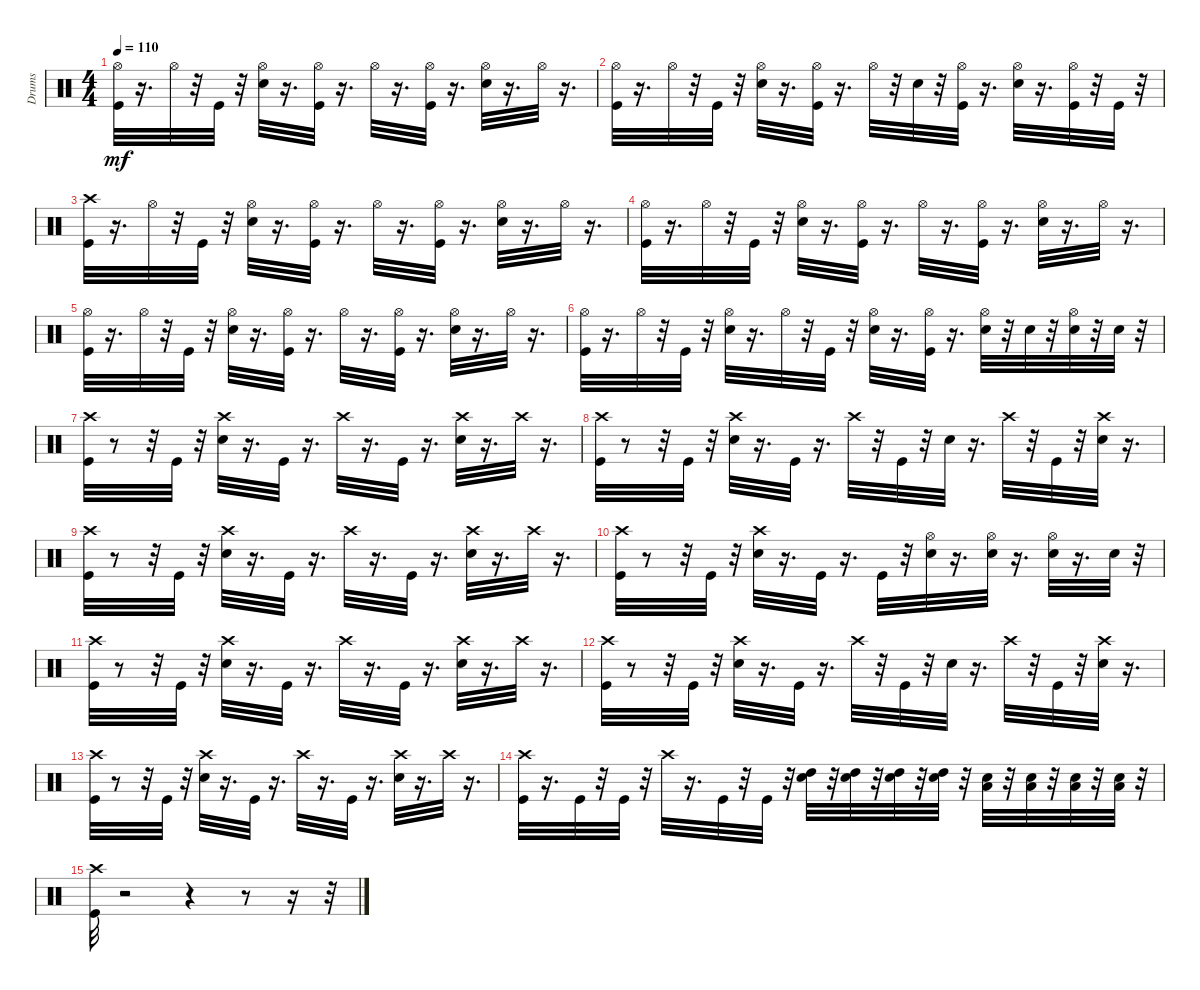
\track ("Drums               " "Drums     ") {instrument percussion}
\staff {score}
\articulation defaults
\ts (4 4)
\tempo 110
\clef neutral
\ks c
("Hi-Hat (open)" "Kick (hit)").32{dy mf} r.16{d} "Hi-Hat (open)".32 r.32 "Kick (hit)".32 r.32 ("Hi-Hat (open)" "Snare (hit) 2").32 r.16{d} ("Hi-Hat (open)" "Kick (hit)").32 r.16{d} "Hi-Hat (open)".32 r.16{d} ("Hi-Hat (open)" "Kick (hit)").32 r.16{d} ("Hi-Hat (open)" "Snare (hit) 2").32 r.16{d} "Hi-Hat (open)".32 r.16{d} |
("Hi-Hat (open)" "Kick (hit)").32 r.16{d} "Hi-Hat (open)".32 r.32 "Kick (hit)".32 r.32 ("Hi-Hat (open)" "Snare (hit) 2").32 r.16{d} ("Hi-Hat (open)" "Kick (hit)").32 r.16{d} "Hi-Hat (open)".32 r.32 "Snare (hit) 2".32 r.32 ("Hi-Hat (open)" "Kick (hit)").32 r.16{d} ("Hi-Hat (open)" "Snare (hit) 2").32 r.16{d} ("Hi-Hat (open)" "Kick (hit)").32 r.32 "Kick (hit)".32 r.32 |
("Kick (hit)" "Crash high (hit)").32 r.16{d} "Hi-Hat (open)".32 r.32 "Kick (hit)".32 r.32 ("Hi-Hat (open)" "Snare (hit) 2").32 r.16{d} ("Hi-Hat (open)" "Kick (hit)").32 r.16{d} "Hi-Hat (open)".32 r.16{d} ("Hi-Hat (open)" "Kick (hit)").32 r.16{d} ("Hi-Hat (open)" "Snare (hit) 2").32 r.16{d} "Hi-Hat (open)".32 r.16{d} |
("Hi-Hat (open)" "Kick (hit)").32 r.16{d} "Hi-Hat (open)".32 r.32 "Kick (hit)".32 r.32 ("Hi-Hat (open)" "Snare (hit) 2").32 r.16{d} ("Hi-Hat (open)" "Kick (hit)").32 r.16{d} "Hi-Hat (open)".32 r.16{d} ("Hi-Hat (open)" "Kick (hit)").32 r.16{d} ("Hi-Hat (open)" "Snare (hit) 2").32 r.16{d} "Hi-Hat (open)".32 r.16{d} |
("Hi-Hat (open)" "Kick (hit)").32 r.16{d} "Hi-Hat (open)".32 r.32 "Kick (hit)".32 r.32 ("Hi-Hat (open)" "Snare (hit) 2").32 r.16{d} ("Hi-Hat (open)" "Kick (hit)").32 r.16{d} "Hi-Hat (open)".32 r.16{d} ("Hi-Hat (open)" "Kick (hit)").32 r.16{d} ("Hi-Hat (open)" "Snare (hit) 2").32 r.16{d} "Hi-Hat (open)".32 r.16{d} |
("Hi-Hat (open)" "Kick (hit)").32 r.16{d} "Hi-Hat (open)".32 r.32 "Kick (hit)".32 r.32 ("Hi-Hat (open)" "Snare (hit) 2").32 r.16{d} "Hi-Hat (open)".32 r.32 "Kick (hit)".32 r.32 ("Hi-Hat (open)" "Snare (hit) 2").32 r.16{d} ("Hi-Hat (open)" "Kick (hit)").32 r.16{d} ("Hi-Hat (open)" "Snare (hit) 2").32 r.32 "Snare (hit) 2".32 r.32 ("Hi-Hat (open)" "Snare (hit) 2").32 r.32 "Snare (hit) 2".32 r.32 |
("Crash high (hit)" "Kick (hit)").32 r.8 r.32 "Kick (hit)".32 r.32 ("Crash high (hit)" "Snare (hit) 2").32 r.16{d} "Kick (hit)".32 r.16{d} "Crash high (hit)".32 r.16{d} "Kick (hit)".32 r.16{d} ("Crash high (hit)" "Snare (hit) 2").32 r.16{d} "Crash high (hit)".32 r.16{d} |
("Crash high (hit)" "Kick (hit)").32 r.8 r.32 "Kick (hit)".32 r.32 ("Crash high (hit)" "Snare (hit) 2").32 r.16{d} "Kick (hit)".32 r.16{d} "Crash high (hit)".32 r.32 "Kick (hit)".32 r.32 "Snare (hit) 2".32 r.16{d} "Crash high (hit)".32 r.32 "Kick (hit)".32 r.32 ("Crash high (hit)" "Snare (hit) 2").32 r.16{d} |
("Crash high (hit)" "Kick (hit)").32 r.8 r.32 "Kick (hit)".32 r.32 ("Crash high (hit)" "Snare (hit) 2").32 r.16{d} "Kick (hit)".32 r.16{d} "Crash high (hit)".32 r.16{d} "Kick (hit)".32 r.16{d} ("Crash high (hit)" "Snare (hit) 2").32 r.16{d} "Crash high (hit)".32 r.16{d} |
("Crash high (hit)" "Kick (hit)").32 r.8 r.32 "Kick (hit)".32 r.32 ("Crash high (hit)" "Snare (hit) 2").32 r.16{d} "Kick (hit)".32 r.16{d} "Kick (hit)".32 r.32 ("Snare (hit) 2" "Hi-Hat (open)").32 r.16{d} ("Snare (hit) 2" "Hi-Hat (open)").32 r.16{d} ("Hi-Hat (open)" "Snare (hit) 2").32 r.16{d} "Snare (hit) 2".32 r.32 |
("Crash high (hit)" "Kick (hit)").32 r.8 r.32 "Kick (hit)".32 r.32 ("Crash high (hit)" "Snare (hit) 2").32 r.16{d} "Kick (hit)".32 r.16{d} "Crash high (hit)".32 r.16{d} "Kick (hit)".32 r.16{d} ("Crash high (hit)" "Snare (hit) 2").32 r.16{d} "Crash high (hit)".32 r.16{d} |
("Crash high (hit)" "Kick (hit)").32 r.8 r.32 "Kick (hit)".32 r.32 ("Crash high (hit)" "Snare (hit) 2").32 r.16{d} "Kick (hit)".32 r.16{d} "Crash high (hit)".32 r.32 "Kick (hit)".32 r.32 "Snare (hit) 2".32 r.16{d} "Crash high (hit)".32 r.32 "Kick (hit)".32 r.32 ("Crash high (hit)" "Snare (hit) 2").32 r.16{d} |
("Crash high (hit)" "Kick (hit)").32 r.8 r.32 "Kick (hit)".32 r.32 ("Crash high (hit)" "Snare (hit) 2").32 r.16{d} "Kick (hit)".32 r.16{d} "Crash high (hit)".32 r.16{d} "Kick (hit)".32 r.16{d} ("Crash high (hit)" "Snare (hit) 2").32 r.16{d} "Crash high (hit)".32 r.16{d} |
("Crash high (hit)" "Kick (hit)").32 r.16{d} "Kick (hit)".32 r.32 "Kick (hit)".32 r.32 "Crash high (hit)".32 r.16{d} "Kick (hit)".32 r.32 "Kick (hit)".32 r.32 ("Snare (hit) 2" "High Tom (hit)").32 r.32 ("Snare (hit) 2" "High Tom (hit)").32 r.32 ("Snare (hit) 2" "High Tom (hit)").32 r.32 ("Snare (hit) 2" "High Tom (hit)").32 r.32 ("Snare (hit) 2" "Low Tom (hit)").32 r.32 ("Snare (hit) 2" "Low Tom (hit)").32 r.32 ("Snare (hit) 2" "Low Tom (hit)").32 r.32 ("Snare (hit) 2" "Low Tom (hit)").32 r.32 |
("Crash high (hit)" "Kick (hit)").32 r.2 r.4 r.8 r.16 r.32
